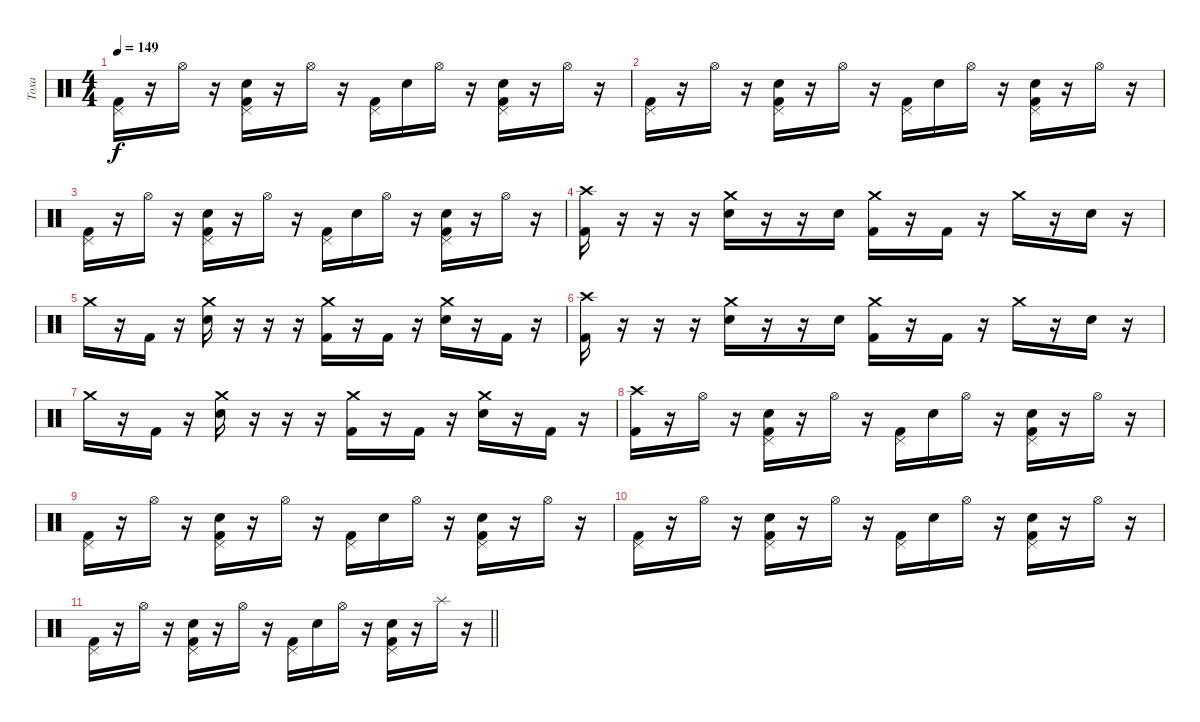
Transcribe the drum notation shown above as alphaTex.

\track ("Toxa" "Toxa") {instrument percussion}
\staff {score}
\articulation defaults
\ts (4 4)
\tempo 149
\clef neutral
\ks c
("Kick (hit) 2" "Pedal Hi-Hat (hit)").16{dy f} r.16 "Hi-Hat (open)".16 r.16 ("Snare (hit) 2" "Pedal Hi-Hat (hit)" "Kick (hit) 2").16 r.16 "Hi-Hat (open)".16 r.16 ("Kick (hit) 2" "Pedal Hi-Hat (hit)").16 "Snare (hit) 2".16 "Hi-Hat (open)".16 r.16 ("Snare (hit) 2" "Kick (hit) 2" "Pedal Hi-Hat (hit)").16 r.16 "Hi-Hat (open)".16 r.16 |
("Kick (hit) 2" "Pedal Hi-Hat (hit)").16 r.16 "Hi-Hat (open)".16 r.16 ("Snare (hit) 2" "Pedal Hi-Hat (hit)" "Kick (hit) 2").16 r.16 "Hi-Hat (open)".16 r.16 ("Kick (hit) 2" "Pedal Hi-Hat (hit)").16 "Snare (hit) 2".16 "Hi-Hat (open)".16 r.16 ("Snare (hit) 2" "Kick (hit) 2" "Pedal Hi-Hat (hit)").16 r.16 "Hi-Hat (open)".16 r.16 |
("Kick (hit) 2" "Pedal Hi-Hat (hit)").16 r.16 "Hi-Hat (open)".16 r.16 ("Snare (hit) 2" "Pedal Hi-Hat (hit)" "Kick (hit) 2").16 r.16 "Hi-Hat (open)".16 r.16 ("Kick (hit) 2" "Pedal Hi-Hat (hit)").16 "Snare (hit) 2".16 "Hi-Hat (open)".16 r.16 ("Snare (hit) 2" "Kick (hit) 2" "Pedal Hi-Hat (hit)").16 r.16 "Hi-Hat (open)".16 r.16 |
("Kick (hit) 2" "Crash high (hit)").16 r.16 r.16 r.16 ("Snare (hit) 2" "Crash medium (hit)").16 r.16 r.16 "Snare (hit) 2".16 ("Kick (hit) 2" "Crash medium (hit)").16 r.16 "Kick (hit) 2".16 r.16 "Crash medium (hit)".16 r.16 "Snare (hit) 2".16 r.16 |
"Crash medium (hit)".16 r.16 "Kick (hit) 2".16 r.16 ("Snare (hit) 2" "Crash medium (hit)").16 r.16 r.16 r.16 ("Kick (hit) 2" "Crash medium (hit)").16 r.16 "Kick (hit) 2".16 r.16 ("Snare (hit) 2" "Crash medium (hit)").16 r.16 "Kick (hit) 2".16 r.16 |
("Kick (hit) 2" "Crash high (hit)").16 r.16 r.16 r.16 ("Snare (hit) 2" "Crash medium (hit)").16 r.16 r.16 "Snare (hit) 2".16 ("Kick (hit) 2" "Crash medium (hit)").16 r.16 "Kick (hit) 2".16 r.16 "Crash medium (hit)".16 r.16 "Snare (hit) 2".16 r.16 |
"Crash medium (hit)".16 r.16 "Kick (hit) 2".16 r.16 ("Snare (hit) 2" "Crash medium (hit)").16 r.16 r.16 r.16 ("Kick (hit) 2" "Crash medium (hit)").16 r.16 "Kick (hit) 2".16 r.16 ("Snare (hit) 2" "Crash medium (hit)").16 r.16 "Kick (hit) 2".16 r.16 |
("Kick (hit) 2" "Crash high (hit)").16 r.16 "Hi-Hat (open)".16 r.16 ("Snare (hit) 2" "Pedal Hi-Hat (hit)" "Kick (hit) 2").16 r.16 "Hi-Hat (open)".16 r.16 ("Kick (hit) 2" "Pedal Hi-Hat (hit)").16 "Snare (hit) 2".16 "Hi-Hat (open)".16 r.16 ("Snare (hit) 2" "Kick (hit) 2" "Pedal Hi-Hat (hit)").16 r.16 "Hi-Hat (open)".16 r.16 |
("Kick (hit) 2" "Pedal Hi-Hat (hit)").16 r.16 "Hi-Hat (open)".16 r.16 ("Snare (hit) 2" "Pedal Hi-Hat (hit)" "Kick (hit) 2").16 r.16 "Hi-Hat (open)".16 r.16 ("Kick (hit) 2" "Pedal Hi-Hat (hit)").16 "Snare (hit) 2".16 "Hi-Hat (open)".16 r.16 ("Snare (hit) 2" "Kick (hit) 2" "Pedal Hi-Hat (hit)").16 r.16 "Hi-Hat (open)".16 r.16 |
("Kick (hit) 2" "Pedal Hi-Hat (hit)").16 r.16 "Hi-Hat (open)".16 r.16 ("Snare (hit) 2" "Pedal Hi-Hat (hit)" "Kick (hit) 2").16 r.16 "Hi-Hat (open)".16 r.16 ("Kick (hit) 2" "Pedal Hi-Hat (hit)").16 "Snare (hit) 2".16 "Hi-Hat (open)".16 r.16 ("Snare (hit) 2" "Kick (hit) 2" "Pedal Hi-Hat (hit)").16 r.16 "Hi-Hat (open)".16 r.16 |
\barLineRight lightlight
("Kick (hit) 2" "Pedal Hi-Hat (hit)").16 r.16 "Hi-Hat (open)".16 r.16 ("Snare (hit) 2" "Pedal Hi-Hat (hit)" "Kick (hit) 2").16 r.16 "Hi-Hat (open)".16 r.16 ("Kick (hit) 2" "Pedal Hi-Hat (hit)").16 "Snare (hit) 2".16 "Hi-Hat (open)".16 r.16 ("Snare (hit) 2" "Kick (hit) 2" "Pedal Hi-Hat (hit)").16 r.16 "Splash (hit)".16 r.16
